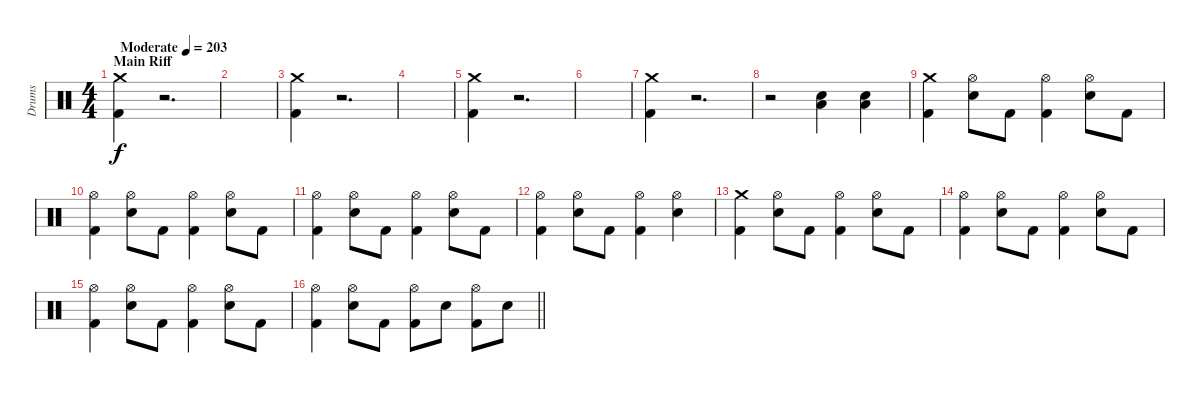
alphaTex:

\track ("Drums" "Drums") {instrument percussion}
\staff {score}
\articulation defaults
\ts (4 4)
\section ("" "Main Riff")
\tempo (203 "Moderate")
\clef neutral
\ks c
("Crash medium (hit)" "Kick (hit) 2").4{dy f} r.2{d} |
|
("Crash medium (hit)" "Kick (hit) 2").4 r.2{d} |
|
("Crash medium (hit)" "Kick (hit) 2").4 r.2{d} |
|
("Crash medium (hit)" "Kick (hit) 2").4 r.2{d} |
r.2 ("Low Tom (hit)" "Electric Snare (hit)").4 ("Low Tom (hit)" "Electric Snare (hit)").4 |
("Crash medium (hit)" "Kick (hit) 2").4 ("Hi-Hat (open)" "Electric Snare (hit)").8 "Kick (hit) 2".8 ("Hi-Hat (open)" "Kick (hit) 2").4 ("Hi-Hat (open)" "Electric Snare (hit)").8 "Kick (hit) 2".8 |
("Hi-Hat (open)" "Kick (hit) 2").4 ("Hi-Hat (open)" "Electric Snare (hit)").8 "Kick (hit) 2".8 ("Hi-Hat (open)" "Kick (hit) 2").4 ("Hi-Hat (open)" "Electric Snare (hit)").8 "Kick (hit) 2".8 |
("Hi-Hat (open)" "Kick (hit) 2").4 ("Hi-Hat (open)" "Electric Snare (hit)").8 "Kick (hit) 2".8 ("Hi-Hat (open)" "Kick (hit) 2").4 ("Hi-Hat (open)" "Electric Snare (hit)").8 "Kick (hit) 2".8 |
("Hi-Hat (open)" "Kick (hit) 2").4 ("Hi-Hat (open)" "Electric Snare (hit)").8 "Kick (hit) 2".8 ("Hi-Hat (open)" "Kick (hit) 2").4 ("Hi-Hat (open)" "Electric Snare (hit)").4 |
("Crash medium (hit)" "Kick (hit) 2").4 ("Hi-Hat (open)" "Electric Snare (hit)").8 "Kick (hit) 2".8 ("Hi-Hat (open)" "Kick (hit) 2").4 ("Hi-Hat (open)" "Electric Snare (hit)").8 "Kick (hit) 2".8 |
("Hi-Hat (open)" "Kick (hit) 2").4 ("Hi-Hat (open)" "Electric Snare (hit)").8 "Kick (hit) 2".8 ("Hi-Hat (open)" "Kick (hit) 2").4 ("Hi-Hat (open)" "Electric Snare (hit)").8 "Kick (hit) 2".8 |
("Hi-Hat (open)" "Kick (hit) 2").4 ("Hi-Hat (open)" "Electric Snare (hit)").8 "Kick (hit) 2".8 ("Hi-Hat (open)" "Kick (hit) 2").4 ("Hi-Hat (open)" "Electric Snare (hit)").8 "Kick (hit) 2".8 |
\barLineRight lightlight
("Hi-Hat (open)" "Kick (hit) 2").4 ("Hi-Hat (open)" "Electric Snare (hit)").8 "Kick (hit) 2".8 ("Hi-Hat (open)" "Kick (hit) 2").8 "Electric Snare (hit)".8 ("Hi-Hat (open)" "Kick (hit) 2").8 "Electric Snare (hit)".8
